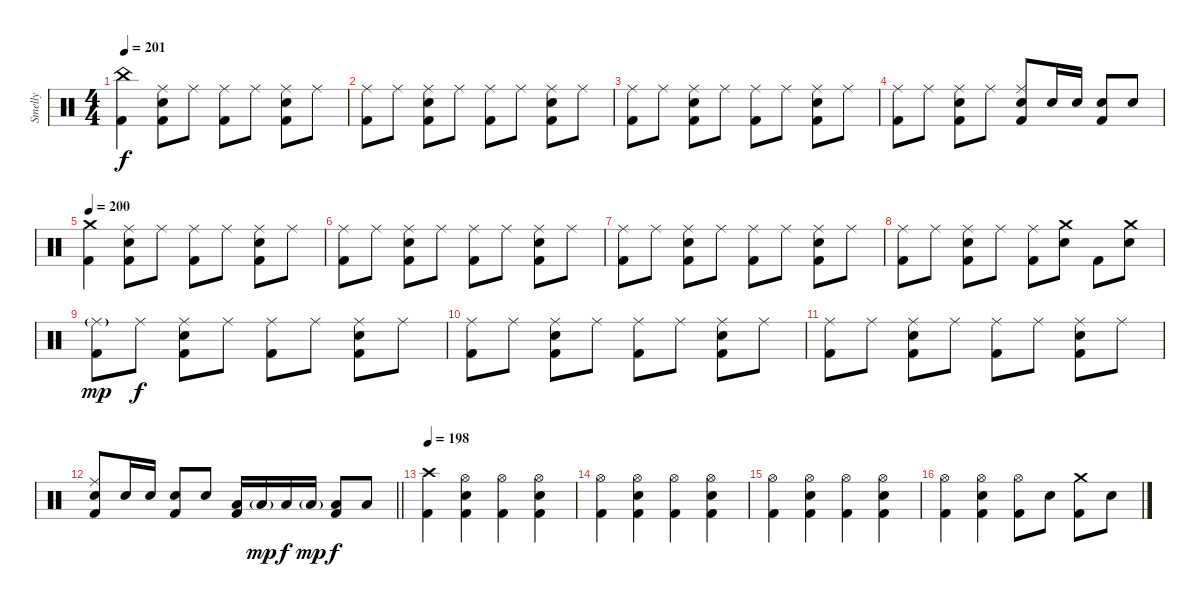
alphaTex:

\track ("Smelly" "Smelly") {instrument percussion}
\staff {score}
\articulation defaults
\ts (4 4)
\tempo 201
\clef neutral
\ks c
("China (hit)" "Kick (hit) 2").4{dy f} ("Ride (middle)" "Electric Snare (hit)" "Kick (hit) 2").8 "Ride (middle)".8 ("Ride (middle)" "Kick (hit) 2").8 "Ride (middle)".8 ("Ride (middle)" "Electric Snare (hit)" "Kick (hit) 2").8 "Ride (middle)".8 |
("Ride (middle)" "Kick (hit) 2").8 "Ride (middle)".8 ("Ride (middle)" "Electric Snare (hit)" "Kick (hit) 2").8 "Ride (middle)".8 ("Ride (middle)" "Kick (hit) 2").8 "Ride (middle)".8 ("Ride (middle)" "Electric Snare (hit)" "Kick (hit) 2").8 "Ride (middle)".8 |
("Ride (middle)" "Kick (hit) 2").8 "Ride (middle)".8 ("Ride (middle)" "Electric Snare (hit)" "Kick (hit) 2").8 "Ride (middle)".8 ("Ride (middle)" "Kick (hit) 2").8 "Ride (middle)".8 ("Ride (middle)" "Electric Snare (hit)" "Kick (hit) 2").8 "Ride (middle)".8 |
("Ride (middle)" "Kick (hit) 2").8 "Ride (middle)".8 ("Ride (middle)" "Electric Snare (hit)" "Kick (hit) 2").8 "Ride (middle)".8 ("Ride (middle)" "Electric Snare (hit)" "Kick (hit) 2").8 "Electric Snare (hit)".16 "Electric Snare (hit)".16 ("Electric Snare (hit)" "Kick (hit) 2").8 "Electric Snare (hit)".8 |
\tempo 200
("Crash medium (hit)" "Kick (hit) 2").4 ("Ride (middle)" "Electric Snare (hit)" "Kick (hit) 2").8 "Ride (middle)".8 ("Ride (middle)" "Kick (hit) 2").8 "Ride (middle)".8 ("Ride (middle)" "Electric Snare (hit)" "Kick (hit) 2").8 "Ride (middle)".8 |
("Ride (middle)" "Kick (hit) 2").8 "Ride (middle)".8 ("Ride (middle)" "Electric Snare (hit)" "Kick (hit) 2").8 "Ride (middle)".8 ("Ride (middle)" "Kick (hit) 2").8 "Ride (middle)".8 ("Ride (middle)" "Electric Snare (hit)" "Kick (hit) 2").8 "Ride (middle)".8 |
("Ride (middle)" "Kick (hit) 2").8 "Ride (middle)".8 ("Ride (middle)" "Electric Snare (hit)" "Kick (hit) 2").8 "Ride (middle)".8 ("Ride (middle)" "Kick (hit) 2").8 "Ride (middle)".8 ("Ride (middle)" "Electric Snare (hit)" "Kick (hit) 2").8 "Ride (middle)".8 |
("Ride (middle)" "Kick (hit) 2").8 "Ride (middle)".8 ("Ride (middle)" "Electric Snare (hit)" "Kick (hit) 2").8 "Ride (middle)".8 ("Ride (middle)" "Kick (hit) 2").8 ("Crash medium (hit)" "Electric Snare (hit)").8 "Kick (hit) 2".8 ("Crash medium (hit)" "Electric Snare (hit)").8 |
("Ride (middle)"{g} "Kick (hit) 2").8{dy mp} "Ride (middle)".8{dy f} ("Ride (middle)" "Electric Snare (hit)" "Kick (hit) 2").8 "Ride (middle)".8 ("Ride (middle)" "Kick (hit) 2").8 "Ride (middle)".8 ("Ride (middle)" "Electric Snare (hit)" "Kick (hit) 2").8 "Ride (middle)".8 |
("Ride (middle)" "Kick (hit) 2").8 "Ride (middle)".8 ("Ride (middle)" "Electric Snare (hit)" "Kick (hit) 2").8 "Ride (middle)".8 ("Ride (middle)" "Kick (hit) 2").8 "Ride (middle)".8 ("Ride (middle)" "Electric Snare (hit)" "Kick (hit) 2").8 "Ride (middle)".8 |
("Ride (middle)" "Kick (hit) 2").8 "Ride (middle)".8 ("Ride (middle)" "Electric Snare (hit)" "Kick (hit) 2").8 "Ride (middle)".8 ("Ride (middle)" "Kick (hit) 2").8 "Ride (middle)".8 ("Ride (middle)" "Electric Snare (hit)" "Kick (hit) 2").8 "Ride (middle)".8 |
\barLineRight lightlight
("Ride (middle)" "Electric Snare (hit)" "Kick (hit) 2").8 "Electric Snare (hit)".16 "Electric Snare (hit)".16 ("Electric Snare (hit)" "Kick (hit) 2").8 "Electric Snare (hit)".8 ("Low Tom (hit)" "Kick (hit) 2").16 "Low Tom (hit)"{g}.16{dy mp} "Low Tom (hit)".16{dy f} "Low Tom (hit)"{g}.16{dy mp} ("Low Floor Tom (hit)" "Kick (hit) 2").8{dy f} "Low Floor Tom (hit)".8 |
\section ("" "")
\tempo 198
("Crash high (hit)" "Kick (hit) 2").4 ("Hi-Hat (open)" "Electric Snare (hit)" "Kick (hit) 2").4 ("Hi-Hat (open)" "Kick (hit) 2").4 ("Hi-Hat (open)" "Electric Snare (hit)" "Kick (hit) 2").4 |
("Hi-Hat (open)" "Kick (hit) 2").4 ("Hi-Hat (open)" "Electric Snare (hit)" "Kick (hit) 2").4 ("Hi-Hat (open)" "Kick (hit) 2").4 ("Hi-Hat (open)" "Electric Snare (hit)" "Kick (hit) 2").4 |
("Hi-Hat (open)" "Kick (hit) 2").4 ("Hi-Hat (open)" "Electric Snare (hit)" "Kick (hit) 2").4 ("Hi-Hat (open)" "Kick (hit) 2").4 ("Hi-Hat (open)" "Electric Snare (hit)" "Kick (hit) 2").4 |
("Hi-Hat (open)" "Kick (hit) 2").4 ("Hi-Hat (open)" "Electric Snare (hit)" "Kick (hit) 2").4 ("Hi-Hat (open)" "Kick (hit) 2").8 "Electric Snare (hit)".8 ("Crash medium (hit)" "Kick (hit) 2").8 "Electric Snare (hit)".8
